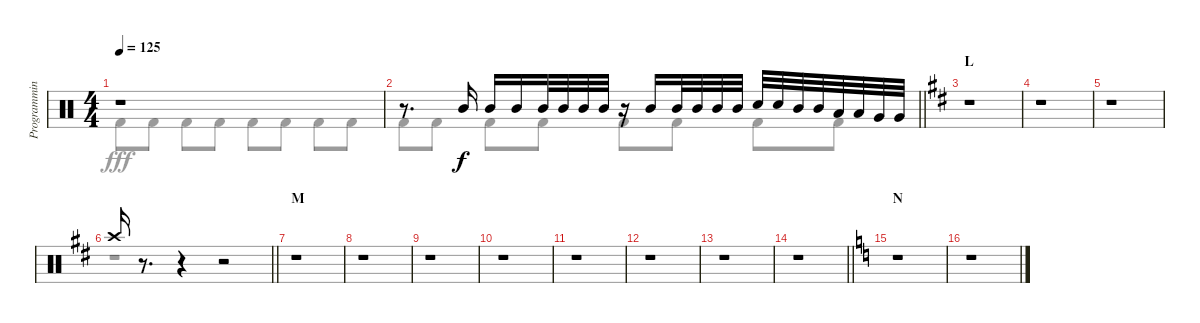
\track ("Programming" "Programmin") {instrument percussion}
\staff {score}
\articulation defaults
\voice
\ts (4 4)
\tempo 125
\clef neutral
\ks c
r.1{dy f} |
\barLineRight lightlight
r.8{d} "Mid Tom (hit)".16 "Mid Tom (hit)".16 "Mid Tom (hit)".16 "Mid Tom (hit)".32 "Mid Tom (hit)".32 "Mid Tom (hit)".32 "Mid Tom (hit)".32 r.16 "Mid Tom (hit)".16 "Mid Tom (hit)".32 "Mid Tom (hit)".32 "Mid Tom (hit)".32 "Mid Tom (hit)".32 "Electric Snare (hit)".32 "Electric Snare (hit)".32 "Mid Tom (hit)".32 "Mid Tom (hit)".32 "Low Tom (hit)".32 "Low Tom (hit)".32 "Very Low Tom (hit)".32 "Very Low Tom (hit)".32 |
\section ("" "L")
\ks d
r.1 |
r.1 |
r.1 |
\barLineRight lightlight "Crash high (hit)".16
r.8{d} r.4 r.2 |
\section ("" "M")
r.1 |
r.1 |
r.1 |
r.1 |
r.1 |
r.1 |
r.1 |
\barLineRight lightlight
r.1 |
\section ("" "N")
\ks c
r.1 |
r.1
\voice
\clef neutral
\ottava regular
\simile none
\ks c "Kick (hit) 2".8{dy fff} "Kick (hit) 2".8 "Kick (hit) 2".8 "Kick (hit) 2".8 "Kick (hit) 2".8 "Kick (hit) 2".8 "Kick (hit) 2".8 "Kick (hit) 2".8
|
\barLineRight lightlight "Kick (hit) 2".8 "Kick (hit) 2".8 "Kick (hit) 2".8 "Kick (hit) 2".8 "Kick (hit) 2".8 "Kick (hit) 2".8 "Kick (hit) 2".8 "Kick (hit) 2".8
|
\ks d
r.1 |
r.1 |
r.1 |
\barLineRight lightlight
r.1 |
r.1 |
r.1 |
r.1 |
r.1 |
r.1 |
r.1 |
r.1 |
\barLineRight lightlight
r.1 |
\ks c
r.1 |
r.1
